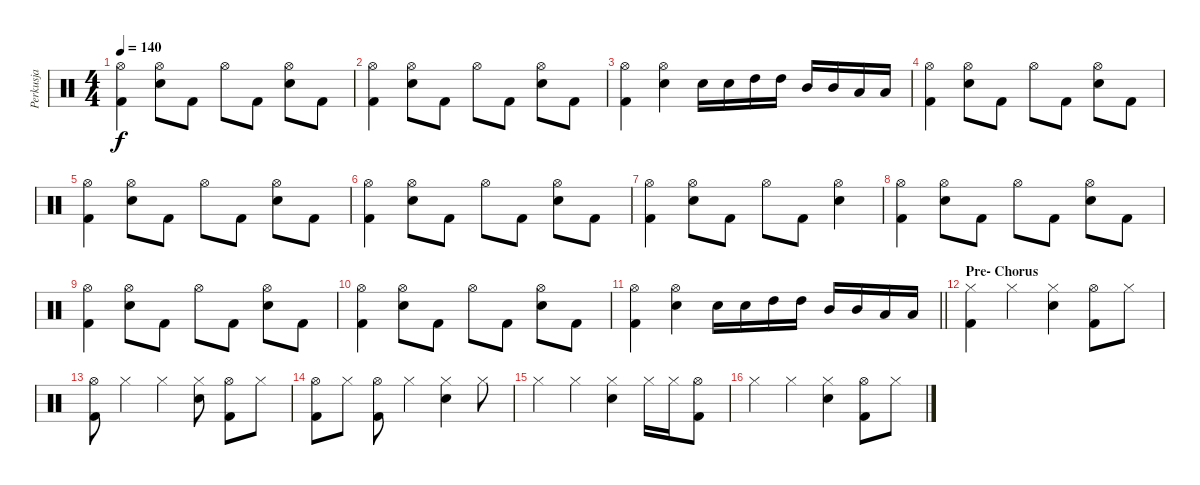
\track ("Perkusja" "Perkusja") {instrument percussion}
\staff {score}
\articulation defaults
\ts (4 4)
\tempo 140
\clef neutral
\ks c
("Hi-Hat (open)" "Kick (hit) 2").4{dy f} ("Hi-Hat (open)" "Snare (hit) 2").8 "Kick (hit) 2".8 "Hi-Hat (open)".8 "Kick (hit) 2".8 ("Hi-Hat (open)" "Snare (hit) 2").8 "Kick (hit) 2".8 |
("Hi-Hat (open)" "Kick (hit) 2").4 ("Hi-Hat (open)" "Snare (hit) 2").8 "Kick (hit) 2".8 "Hi-Hat (open)".8 "Kick (hit) 2".8 ("Hi-Hat (open)" "Snare (hit) 2").8 "Kick (hit) 2".8 |
("Hi-Hat (open)" "Kick (hit) 2").4 ("Hi-Hat (open)" "Snare (hit) 2").4 "Snare (hit) 2".16 "Snare (hit) 2".16 "High Tom (hit)".16 "High Tom (hit)".16 "Mid Tom (hit)".16 "Mid Tom (hit)".16 "Low Tom (hit)".16 "Low Tom (hit)".16 |
("Hi-Hat (open)" "Kick (hit) 2").4 ("Hi-Hat (open)" "Snare (hit) 2").8 "Kick (hit) 2".8 "Hi-Hat (open)".8 "Kick (hit) 2".8 ("Hi-Hat (open)" "Snare (hit) 2").8 "Kick (hit) 2".8 |
("Hi-Hat (open)" "Kick (hit) 2").4 ("Hi-Hat (open)" "Snare (hit) 2").8 "Kick (hit) 2".8 "Hi-Hat (open)".8 "Kick (hit) 2".8 ("Hi-Hat (open)" "Snare (hit) 2").8 "Kick (hit) 2".8 |
("Hi-Hat (open)" "Kick (hit) 2").4 ("Hi-Hat (open)" "Snare (hit) 2").8 "Kick (hit) 2".8 "Hi-Hat (open)".8 "Kick (hit) 2".8 ("Hi-Hat (open)" "Snare (hit) 2").8 "Kick (hit) 2".8 |
("Hi-Hat (open)" "Kick (hit) 2").4 ("Hi-Hat (open)" "Snare (hit) 2").8 "Kick (hit) 2".8 "Hi-Hat (open)".8 "Kick (hit) 2".8 ("Hi-Hat (open)" "Snare (hit) 2").4 |
("Hi-Hat (open)" "Kick (hit) 2").4 ("Hi-Hat (open)" "Snare (hit) 2").8 "Kick (hit) 2".8 "Hi-Hat (open)".8 "Kick (hit) 2".8 ("Hi-Hat (open)" "Snare (hit) 2").8 "Kick (hit) 2".8 |
("Hi-Hat (open)" "Kick (hit) 2").4 ("Hi-Hat (open)" "Snare (hit) 2").8 "Kick (hit) 2".8 "Hi-Hat (open)".8 "Kick (hit) 2".8 ("Hi-Hat (open)" "Snare (hit) 2").8 "Kick (hit) 2".8 |
("Hi-Hat (open)" "Kick (hit) 2").4 ("Hi-Hat (open)" "Snare (hit) 2").8 "Kick (hit) 2".8 "Hi-Hat (open)".8 "Kick (hit) 2".8 ("Hi-Hat (open)" "Snare (hit) 2").8 "Kick (hit) 2".8 |
\barLineRight lightlight
("Hi-Hat (open)" "Kick (hit) 2").4 ("Hi-Hat (open)" "Snare (hit) 2").4 "Snare (hit) 2".16 "Snare (hit) 2".16 "High Tom (hit)".16 "High Tom (hit)".16 "Mid Tom (hit)".16 "Mid Tom (hit)".16 "Low Tom (hit)".16 "Low Tom (hit)".16 |
\section ("" "Pre- Chorus")
("Hi-Hat (closed)" "Kick (hit) 2").4 "Hi-Hat (closed)".4 ("Hi-Hat (closed)" "Snare (hit) 2").4 ("Hi-Hat (open)" "Kick (hit) 2").8 "Hi-Hat (closed)".8 |
("Hi-Hat (open)" "Kick (hit) 2").8 "Hi-Hat (closed)".4 "Hi-Hat (closed)".4 ("Hi-Hat (closed)" "Snare (hit) 2").8 ("Hi-Hat (open)" "Kick (hit) 2").8 "Hi-Hat (closed)".8 |
("Hi-Hat (open)" "Kick (hit) 2").8 "Hi-Hat (closed)".8 ("Hi-Hat (open)" "Kick (hit) 2").8 "Hi-Hat (closed)".4 ("Hi-Hat (closed)" "Snare (hit) 2").4 "Hi-Hat (closed)".8 |
"Hi-Hat (closed)".4 "Hi-Hat (closed)".4 ("Hi-Hat (closed)" "Snare (hit) 2").4 "Hi-Hat (closed)".16 "Hi-Hat (closed)".16 ("Hi-Hat (open)" "Kick (hit) 2").8 |
"Hi-Hat (closed)".4 "Hi-Hat (closed)".4 ("Hi-Hat (closed)" "Snare (hit) 2").4 ("Hi-Hat (open)" "Kick (hit) 2").8 "Hi-Hat (closed)".8
